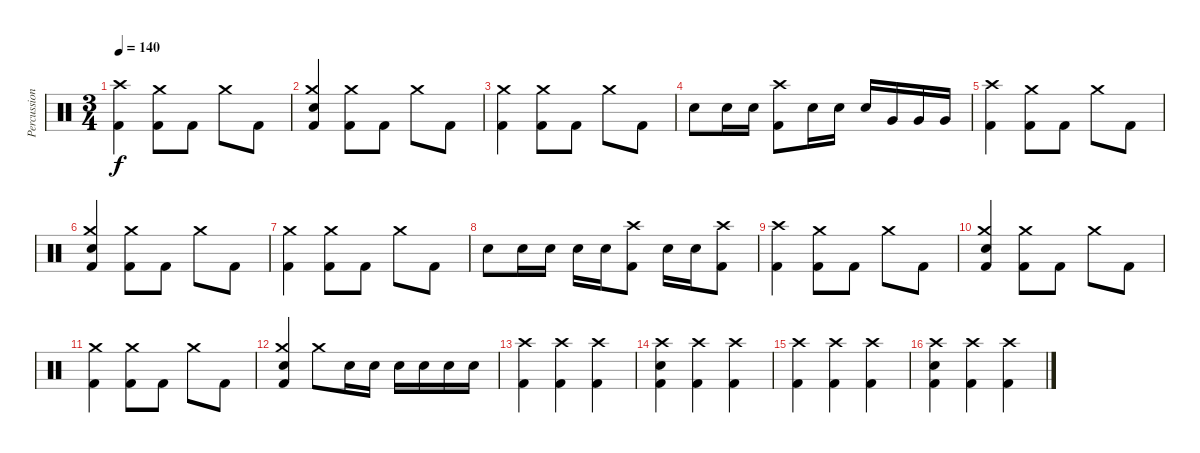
\track ("Percussions" "Percussion") {instrument percussion}
\staff {score}
\articulation defaults
\ts (3 4)
\tempo 140
\clef neutral
\ks c
("Crash high (hit)" "Kick (hit) 2").4{dy f} ("Crash medium (hit)" "Kick (hit) 2").8 "Kick (hit) 2".8 "Crash medium (hit)".8 "Kick (hit) 2".8 |
("Crash medium (hit)" "Electric Snare (hit)" "Kick (hit) 2").4 ("Crash medium (hit)" "Kick (hit) 2").8 "Kick (hit) 2".8 "Crash medium (hit)".8 "Kick (hit) 2".8 |
("Crash medium (hit)" "Kick (hit) 2").4 ("Crash medium (hit)" "Kick (hit) 2").8 "Kick (hit) 2".8 "Crash medium (hit)".8 "Kick (hit) 2".8 |
"Electric Snare (hit)".8 "Electric Snare (hit)".16 "Electric Snare (hit)".16 ("Crash high (hit)" "Kick (hit) 2").8 "Electric Snare (hit)".16 "Electric Snare (hit)".16 "Electric Snare (hit)".16 "Very Low Tom (hit)".16 "Very Low Tom (hit)".16 "Very Low Tom (hit)".16 |
("Crash high (hit)" "Kick (hit) 2").4 ("Crash medium (hit)" "Kick (hit) 2").8 "Kick (hit) 2".8 "Crash medium (hit)".8 "Kick (hit) 2".8 |
("Crash medium (hit)" "Electric Snare (hit)" "Kick (hit) 2").4 ("Crash medium (hit)" "Kick (hit) 2").8 "Kick (hit) 2".8 "Crash medium (hit)".8 "Kick (hit) 2".8 |
("Crash medium (hit)" "Kick (hit) 2").4 ("Crash medium (hit)" "Kick (hit) 2").8 "Kick (hit) 2".8 "Crash medium (hit)".8 "Kick (hit) 2".8 |
"Electric Snare (hit)".8 "Electric Snare (hit)".16 "Electric Snare (hit)".16 "Electric Snare (hit)".16 "Electric Snare (hit)".16 ("Crash high (hit)" "Kick (hit) 2").8 "Electric Snare (hit)".16 "Electric Snare (hit)".16 ("Crash high (hit)" "Kick (hit) 2").8 |
("Crash high (hit)" "Kick (hit) 2").4 ("Crash medium (hit)" "Kick (hit) 2").8 "Kick (hit) 2".8 "Crash medium (hit)".8 "Kick (hit) 2".8 |
("Crash medium (hit)" "Electric Snare (hit)" "Kick (hit) 2").4 ("Crash medium (hit)" "Kick (hit) 2").8 "Kick (hit) 2".8 "Crash medium (hit)".8 "Kick (hit) 2".8 |
("Crash medium (hit)" "Kick (hit) 2").4 ("Crash medium (hit)" "Kick (hit) 2").8 "Kick (hit) 2".8 "Crash medium (hit)".8 "Kick (hit) 2".8 |
("Crash medium (hit)" "Electric Snare (hit)" "Kick (hit) 2").4 "Crash medium (hit)".8 "Electric Snare (hit)".16 "Electric Snare (hit)".16 "Electric Snare (hit)".16 "Electric Snare (hit)".16 "Electric Snare (hit)".16 "Electric Snare (hit)".16 |
("Crash high (hit)" "Kick (hit) 2").4 ("Crash high (hit)" "Kick (hit) 2").4 ("Crash high (hit)" "Kick (hit) 2").4 |
("Crash high (hit)" "Electric Snare (hit)" "Kick (hit) 2").4 ("Crash high (hit)" "Kick (hit) 2").4 ("Crash high (hit)" "Kick (hit) 2").4 |
("Crash high (hit)" "Kick (hit) 2").4 ("Crash high (hit)" "Kick (hit) 2").4 ("Crash high (hit)" "Kick (hit) 2").4 |
("Crash high (hit)" "Electric Snare (hit)" "Kick (hit) 2").4 ("Crash high (hit)" "Kick (hit) 2").4 ("Crash high (hit)" "Kick (hit) 2").4
